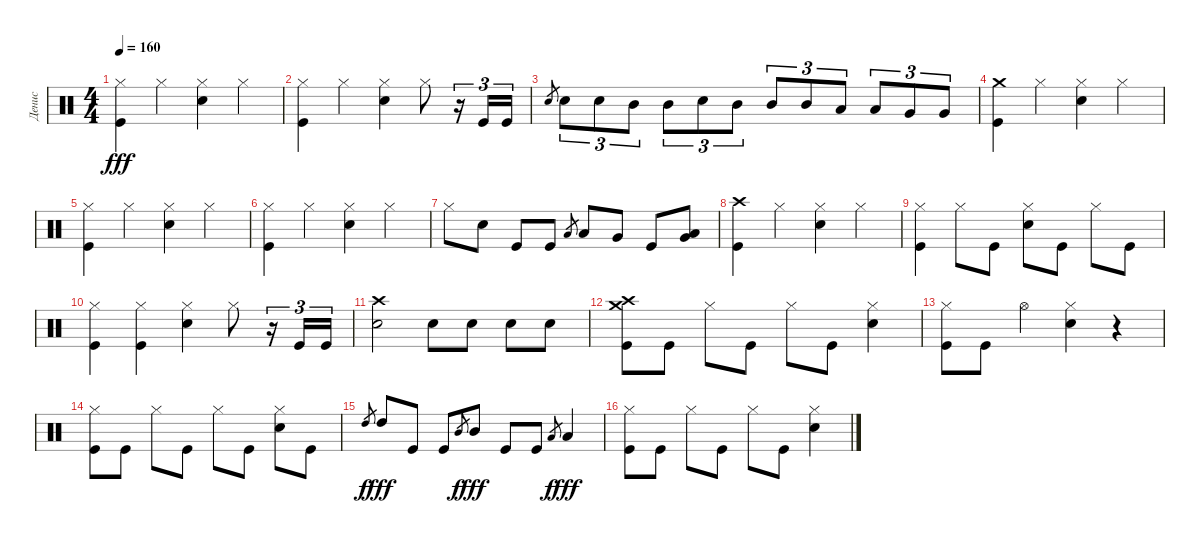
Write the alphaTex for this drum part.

\track ("Денис" "Денис") {instrument percussion}
\staff {score}
\articulation defaults
\ts (4 4)
\tempo 160
\clef neutral
\ks c
("Hi-Hat (closed)" "Kick (hit)").4{dy fff} "Hi-Hat (closed)".4 ("Electric Snare (hit)" "Hi-Hat (closed)").4 "Hi-Hat (closed)".4 |
("Hi-Hat (closed)" "Kick (hit)").4 "Hi-Hat (closed)".4 ("Electric Snare (hit)" "Hi-Hat (closed)").4 "Hi-Hat (closed)".8 r.16{tu (3 2)} "Kick (hit)".16{tu (3 2)} "Kick (hit)".16{tu (3 2)} |
"Electric Snare (hit)".8{gr} "Electric Snare (hit)".8{tu (3 2)} "Electric Snare (hit)".8{tu (3 2)} "Mid Tom (hit)".8{tu (3 2)} "Mid Tom (hit)".8{tu (3 2)} "Electric Snare (hit)".8{tu (3 2)} "Mid Tom (hit)".8{tu (3 2)} "Mid Tom (hit)".8{tu (3 2)} "Mid Tom (hit)".8{tu (3 2)} "Low Tom (hit)".8{tu (3 2)} "Low Tom (hit)".8{tu (3 2)} "Very Low Tom (hit)".8{tu (3 2)} "Very Low Tom (hit)".8{tu (3 2)} |
("Kick (hit)" "Crash medium (hit)").4 "Hi-Hat (closed)".4 ("Electric Snare (hit)" "Hi-Hat (closed)").4 "Hi-Hat (closed)".4 |
("Kick (hit)" "Hi-Hat (closed)").4 "Hi-Hat (closed)".4 ("Electric Snare (hit)" "Hi-Hat (closed)").4 "Hi-Hat (closed)".4 |
("Kick (hit)" "Hi-Hat (closed)").4 "Hi-Hat (closed)".4 ("Electric Snare (hit)" "Hi-Hat (closed)").4 "Hi-Hat (closed)".4 |
"Hi-Hat (closed)".8 "Electric Snare (hit)".8 "Kick (hit)".8 "Kick (hit)".8 "Low Tom (hit)".8{gr} "Low Tom (hit)".8 "Very Low Tom (hit)".8 "Kick (hit)".8 ("Very Low Tom (hit)" "Low Floor Tom (hit)").8 |
("Kick (hit)" "Crash high (hit)").4 "Hi-Hat (closed)".4 ("Electric Snare (hit)" "Hi-Hat (closed)").4 "Hi-Hat (closed)".4 |
("Kick (hit)" "Hi-Hat (closed)").4 "Hi-Hat (closed)".8 "Kick (hit)".8 ("Electric Snare (hit)" "Hi-Hat (closed)").8 "Kick (hit)".8 "Hi-Hat (closed)".8 "Kick (hit)".8 |
("Hi-Hat (closed)" "Kick (hit)").4 ("Hi-Hat (closed)" "Kick (hit)").4 ("Electric Snare (hit)" "Hi-Hat (closed)").4 "Hi-Hat (closed)".8 r.16{tu (3 2)} "Kick (hit)".16{tu (3 2)} "Kick (hit)".16{tu (3 2)} |
("Electric Snare (hit)" "Crash high (hit)").2 "Electric Snare (hit)".8 "Electric Snare (hit)".8 "Electric Snare (hit)".8 "Electric Snare (hit)".8 |
("Kick (hit)" "Crash medium (hit)" "Crash high (hit)").8 "Kick (hit)".8 "Hi-Hat (closed)".8 "Kick (hit)".8 "Hi-Hat (closed)".8 "Kick (hit)".8 ("Electric Snare (hit)" "Hi-Hat (closed)").4 |
("Kick (hit)" "Hi-Hat (closed)").8 "Kick (hit)".8 "Hi-Hat (open)".4 ("Electric Snare (hit)" "Hi-Hat (closed)").4 r.4 |
("Kick (hit)" "Hi-Hat (closed)").8 "Kick (hit)".8 "Hi-Hat (closed)".8 "Kick (hit)".8 "Hi-Hat (closed)".8 "Kick (hit)".8 ("Electric Snare (hit)" "Hi-Hat (closed)").8 "Kick (hit)".8 |
"High Tom (hit)".8{gr dy f} "High Tom (hit)".8{dy fff} "Kick (hit)".8 "Kick (hit)".8 "Mid Tom (hit)".8{gr dy f} "Mid Tom (hit)".8{dy fff} "Kick (hit)".8 "Kick (hit)".8 "Low Tom (hit)".8{gr dy f} "Low Tom (hit)".4{dy fff} |
("Kick (hit)" "Hi-Hat (closed)").8 "Kick (hit)".8 "Hi-Hat (closed)".8 "Kick (hit)".8 "Hi-Hat (closed)".8 "Kick (hit)".8 ("Electric Snare (hit)" "Hi-Hat (closed)").4
